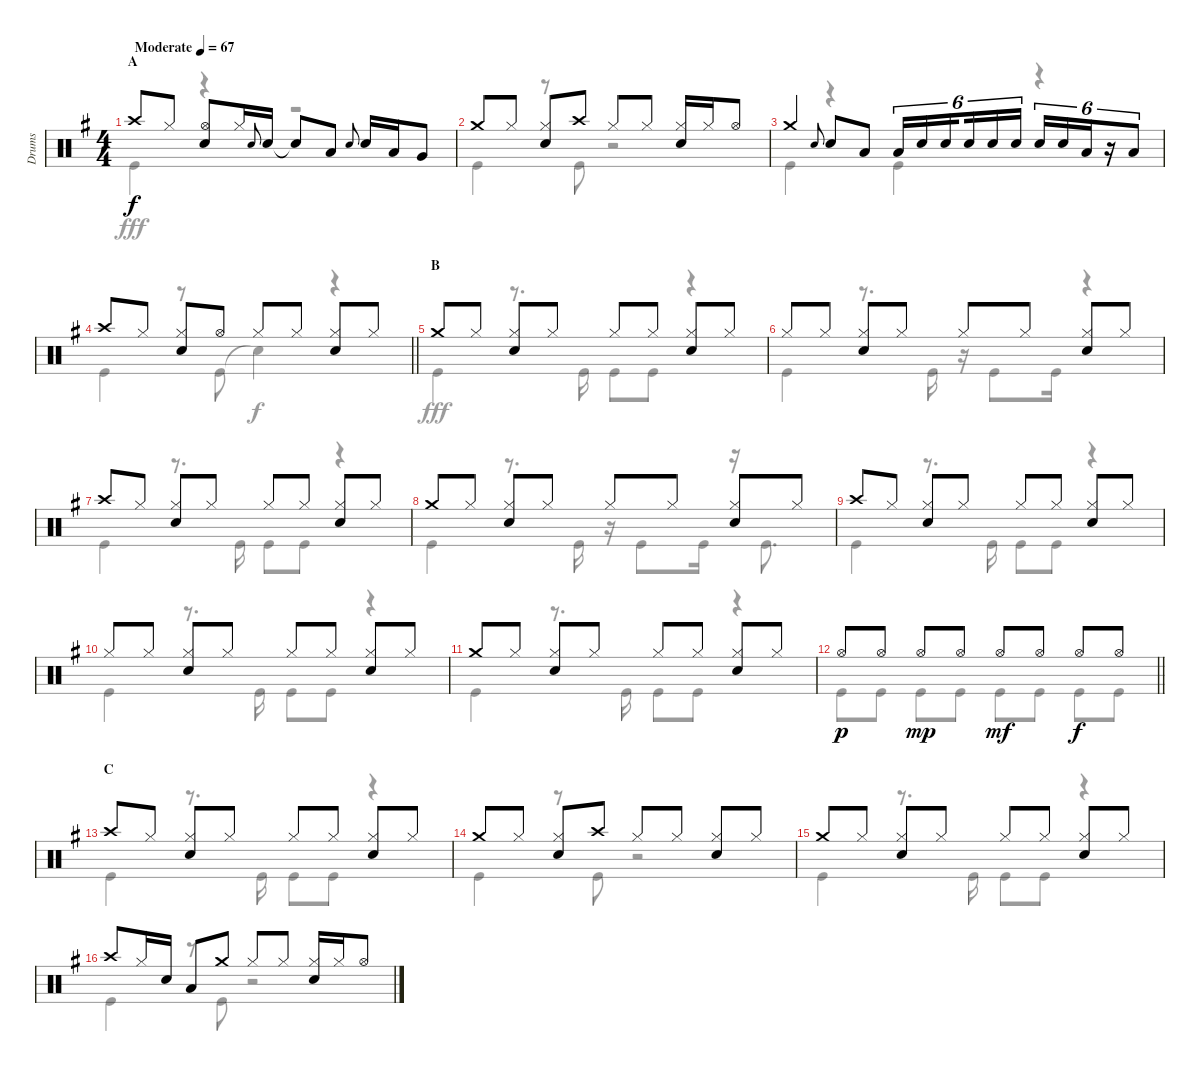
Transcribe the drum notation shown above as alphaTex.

\track ("Drums" "Drums") {instrument percussion}
\staff {score}
\articulation defaults
\voice
\ts (4 4)
\section ("" "A")
\tempo (67 "Moderate")
\clef neutral
\ks g "Crash high (hit)".8{dy f} "Hi-Hat (closed)".8
("Hi-Hat (open)" "Snare (hit) 2").8 "Hi-Hat (closed)".16 "Snare (hit) 2".8{gr onbeat} "Snare (hit) 2".16 "Snare (hit)"{t}.8 "Low Tom (hit)".8 "Snare (hit) 2".8{gr onbeat} "Snare (hit) 2".16 "Low Tom (hit)".16 "Very Low Tom (hit)".8 |
"Crash medium (hit)".8 "Hi-Hat (closed)".8 ("Hi-Hat (closed)" "Snare (hit) 2").8 "Crash high (hit)".8 "Hi-Hat (closed)".8 "Hi-Hat (closed)".8 ("Hi-Hat (closed)" "Snare (hit) 2").16 "Hi-Hat (closed)".16 "Hi-Hat (open)".8 |
"Crash medium (hit)".4 "Snare (hit) 2".8{gr onbeat} "Snare (hit) 2".8 "Low Tom (hit)".8 "Low Tom (hit)".16{tu (6 4)} "Snare (hit) 2".16{tu (6 4)} "Snare (hit) 2".16{tu (6 4) beam splitsecondary} "Snare (hit) 2".16{tu (6 4)} "Snare (hit) 2".16{tu (6 4)} "Snare (hit) 2".16{tu (6 4)} "Snare (hit) 2".16{tu (6 4)} "Snare (hit) 2".16{tu (6 4)} "Low Tom (hit)".16{tu (6 4)} r.16{tu (6 4)} "Low Tom (hit)".8{tu (6 4)} |
\barLineRight lightlight "Crash high (hit)".8 "Hi-Hat (closed)".8
("Hi-Hat (closed)" "Snare (hit) 2").8 "Hi-Hat (open)".8 "Hi-Hat (closed)".8 "Hi-Hat (closed)".8 ("Hi-Hat (closed)" "Snare (hit) 2").8 "Hi-Hat (closed)".8 |
\section ("" "B")
"Crash medium (hit)".8 "Hi-Hat (closed)".8 ("Hi-Hat (closed)" "Snare (hit) 2").8 "Hi-Hat (closed)".8 "Hi-Hat (closed)".8 "Hi-Hat (closed)".8 ("Hi-Hat (closed)" "Snare (hit) 2").8 "Hi-Hat (closed)".8 |
"Hi-Hat (closed)".8 "Hi-Hat (closed)".8 ("Hi-Hat (closed)" "Snare (hit) 2").8 "Hi-Hat (closed)".8 "Hi-Hat (closed)".8 "Hi-Hat (closed)".8 ("Hi-Hat (closed)" "Snare (hit) 2").8 "Hi-Hat (closed)".8 |
"Crash high (hit)".8 "Hi-Hat (closed)".8 ("Hi-Hat (closed)" "Snare (hit) 2").8 "Hi-Hat (closed)".8 "Hi-Hat (closed)".8 "Hi-Hat (closed)".8 ("Hi-Hat (closed)" "Snare (hit) 2").8 "Hi-Hat (closed)".8 |
"Crash medium (hit)".8 "Hi-Hat (closed)".8 ("Hi-Hat (closed)" "Snare (hit) 2").8 "Hi-Hat (closed)".8 "Hi-Hat (closed)".8 "Hi-Hat (closed)".8 ("Hi-Hat (closed)" "Snare (hit) 2").8 "Hi-Hat (closed)".8 |
"Crash high (hit)".8 "Hi-Hat (closed)".8 ("Hi-Hat (closed)" "Snare (hit) 2").8 "Hi-Hat (closed)".8 "Hi-Hat (closed)".8 "Hi-Hat (closed)".8 ("Hi-Hat (closed)" "Snare (hit) 2").8 "Hi-Hat (closed)".8 |
"Hi-Hat (closed)".8 "Hi-Hat (closed)".8 ("Hi-Hat (closed)" "Snare (hit) 2").8 "Hi-Hat (closed)".8 "Hi-Hat (closed)".8 "Hi-Hat (closed)".8 ("Hi-Hat (closed)" "Snare (hit) 2").8 "Hi-Hat (closed)".8 |
"Crash medium (hit)".8 "Hi-Hat (closed)".8 ("Hi-Hat (closed)" "Snare (hit) 2").8 "Hi-Hat (closed)".8 "Hi-Hat (closed)".8 "Hi-Hat (closed)".8 ("Hi-Hat (closed)" "Snare (hit) 2").8 "Hi-Hat (closed)".8 |
\barLineRight lightlight "Hi-Hat (open)".8{dy p} "Hi-Hat (open)".8 "Hi-Hat (open)".8{dy mp} "Hi-Hat (open)".8 "Hi-Hat (open)".8{dy mf} "Hi-Hat (open)".8 "Hi-Hat (open)".8{dy f} "Hi-Hat (open)".8
|
\section ("" "C")
"Crash high (hit)".8 "Hi-Hat (closed)".8 ("Hi-Hat (closed)" "Snare (hit) 2").8 "Hi-Hat (closed)".8 "Hi-Hat (closed)".8 "Hi-Hat (closed)".8 ("Hi-Hat (closed)" "Snare (hit) 2").8 "Hi-Hat (closed)".8 |
"Crash medium (hit)".8 "Hi-Hat (closed)".8 ("Hi-Hat (closed)" "Snare (hit) 2").8 "Crash high (hit)".8 "Hi-Hat (closed)".8 "Hi-Hat (closed)".8 ("Hi-Hat (closed)" "Snare (hit) 2").8 "Hi-Hat (closed)".8 |
"Crash medium (hit)".8 "Hi-Hat (closed)".8 ("Hi-Hat (closed)" "Snare (hit) 2").8 "Hi-Hat (closed)".8 "Hi-Hat (closed)".8 "Hi-Hat (closed)".8 ("Hi-Hat (closed)" "Snare (hit) 2").8 "Hi-Hat (closed)".8 |
"Crash high (hit)".8 "Hi-Hat (closed)".16 "Snare (hit) 2".16 "Low Tom (hit)".8 "Crash medium (hit)".8 "Hi-Hat (closed)".8 "Hi-Hat (closed)".8 ("Hi-Hat (closed)" "Snare (hit) 2").16 "Hi-Hat (closed)".16 "Hi-Hat (open)".8
\voice
\clef neutral
\ottava regular
\simile none
\ks g "Kick (hit)".4{dy fff}
r.4 r.2 |
"Kick (hit)".4 r.8 "Kick (hit)".8 r.2 |
"Kick (hit)".4 r.4 "Kick (hit)".4 r.4 |
\barLineRight lightlight "Kick (hit)".4
r.8 "Kick (hit)".8 "Snare (hit)"{t}.4{dy f} r.4 |
"Kick (hit)".4{dy fff} r.8{d} "Kick (hit)".16 "Kick (hit)".8 "Kick (hit)".8 r.4 |
"Kick (hit)".4 r.8{d} "Kick (hit)".16 r.16 "Kick (hit)".8 "Kick (hit)".16 r.4 |
"Kick (hit)".4 r.8{d} "Kick (hit)".16 "Kick (hit)".8 "Kick (hit)".8 r.4 |
"Kick (hit)".4 r.8{d} "Kick (hit)".16 r.16 "Kick (hit)".8 "Kick (hit)".16 r.16 "Kick (hit)".8{d} |
"Kick (hit)".4 r.8{d} "Kick (hit)".16 "Kick (hit)".8 "Kick (hit)".8 r.4 |
"Kick (hit)".4 r.8{d} "Kick (hit)".16 "Kick (hit)".8 "Kick (hit)".8 r.4 |
"Kick (hit)".4 r.8{d} "Kick (hit)".16 "Kick (hit)".8 "Kick (hit)".8 r.4 |
\barLineRight lightlight "Kick (hit)".8 "Kick (hit)".8 "Kick (hit)".8 "Kick (hit)".8 "Kick (hit)".8 "Kick (hit)".8 "Kick (hit)".8 "Kick (hit)".8
|
"Kick (hit)".4 r.8{d} "Kick (hit)".16 "Kick (hit)".8 "Kick (hit)".8 r.4 |
"Kick (hit)".4 r.8 "Kick (hit)".8 r.2 |
"Kick (hit)".4 r.8{d} "Kick (hit)".16 "Kick (hit)".8 "Kick (hit)".8 r.4 |
"Kick (hit)".4 r.8 "Kick (hit)".8 r.2
